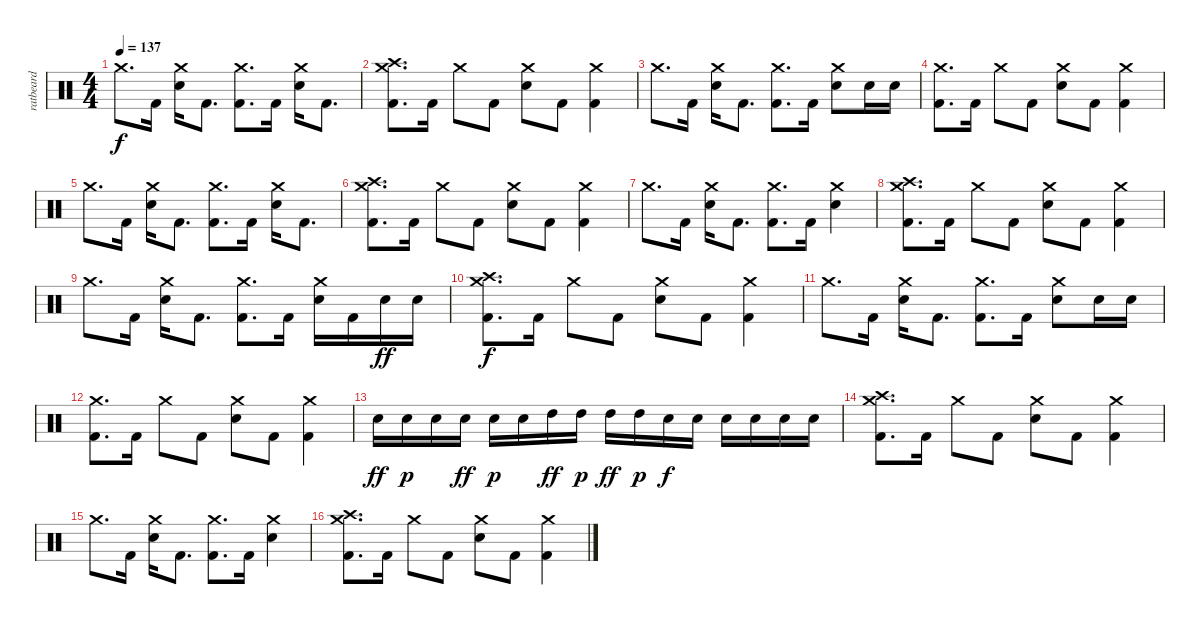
\track ("ratbeard" "ratbeard") {instrument percussion}
\staff {score}
\articulation defaults
\ts (4 4)
\tempo 137
\clef neutral
\ks c "Crash medium (hit)".8{d dy f} "Kick (hit) 2".16
("Crash medium (hit)" "Electric Snare (hit)").16 "Kick (hit) 2".8{d} ("Crash medium (hit)" "Kick (hit) 2").8{d} "Kick (hit) 2".16 ("Crash medium (hit)" "Electric Snare (hit)").16 "Kick (hit) 2".8{d} |
("Crash high (hit)" "Crash medium (hit)" "Kick (hit) 2").8{d} "Kick (hit) 2".16 "Crash medium (hit)".8 "Kick (hit) 2".8 ("Crash medium (hit)" "Electric Snare (hit)").8 "Kick (hit) 2".8 ("Crash medium (hit)" "Kick (hit) 2").4 |
"Crash medium (hit)".8{d} "Kick (hit) 2".16 ("Crash medium (hit)" "Electric Snare (hit)").16 "Kick (hit) 2".8{d} ("Crash medium (hit)" "Kick (hit) 2").8{d} "Kick (hit) 2".16 ("Crash medium (hit)" "Electric Snare (hit)").8 "Electric Snare (hit)".16 "Electric Snare (hit)".16 |
("Crash medium (hit)" "Kick (hit) 2").8{d} "Kick (hit) 2".16 "Crash medium (hit)".8 "Kick (hit) 2".8 ("Crash medium (hit)" "Electric Snare (hit)").8 "Kick (hit) 2".8 ("Crash medium (hit)" "Kick (hit) 2").4 |
"Crash medium (hit)".8{d} "Kick (hit) 2".16 ("Crash medium (hit)" "Electric Snare (hit)").16 "Kick (hit) 2".8{d} ("Crash medium (hit)" "Kick (hit) 2").8{d} "Kick (hit) 2".16 ("Crash medium (hit)" "Electric Snare (hit)").16 "Kick (hit) 2".8{d} |
("Crash high (hit)" "Crash medium (hit)" "Kick (hit) 2").8{d} "Kick (hit) 2".16 "Crash medium (hit)".8 "Kick (hit) 2".8 ("Crash medium (hit)" "Electric Snare (hit)").8 "Kick (hit) 2".8 ("Crash medium (hit)" "Kick (hit) 2").4 |
"Crash medium (hit)".8{d} "Kick (hit) 2".16 ("Crash medium (hit)" "Electric Snare (hit)").16 "Kick (hit) 2".8{d} ("Crash medium (hit)" "Kick (hit) 2").8{d} "Kick (hit) 2".16 ("Crash medium (hit)" "Electric Snare (hit)").4 |
("Crash high (hit)" "Crash medium (hit)" "Kick (hit) 2").8{d} "Kick (hit) 2".16 "Crash medium (hit)".8 "Kick (hit) 2".8 ("Crash medium (hit)" "Electric Snare (hit)").8 "Kick (hit) 2".8 ("Crash medium (hit)" "Kick (hit) 2").4 |
"Crash medium (hit)".8{d} "Kick (hit) 2".16 ("Crash medium (hit)" "Electric Snare (hit)").16 "Kick (hit) 2".8{d} ("Crash medium (hit)" "Kick (hit) 2").8{d} "Kick (hit) 2".16 ("Crash medium (hit)" "Electric Snare (hit)").16 "Kick (hit) 2".16 "Electric Snare (hit)".16{dy ff} "Electric Snare (hit)".16 |
("Crash high (hit)" "Crash medium (hit)" "Kick (hit) 2").8{d dy f} "Kick (hit) 2".16 "Crash medium (hit)".8 "Kick (hit) 2".8 ("Crash medium (hit)" "Electric Snare (hit)").8 "Kick (hit) 2".8 ("Crash medium (hit)" "Kick (hit) 2").4 |
"Crash medium (hit)".8{d} "Kick (hit) 2".16 ("Crash medium (hit)" "Electric Snare (hit)").16 "Kick (hit) 2".8{d} ("Crash medium (hit)" "Kick (hit) 2").8{d} "Kick (hit) 2".16 ("Crash medium (hit)" "Electric Snare (hit)").8 "Electric Snare (hit)".16 "Electric Snare (hit)".16 |
("Crash medium (hit)" "Kick (hit) 2").8{d} "Kick (hit) 2".16 "Crash medium (hit)".8 "Kick (hit) 2".8 ("Crash medium (hit)" "Electric Snare (hit)").8 "Kick (hit) 2".8 ("Crash medium (hit)" "Kick (hit) 2").4 |
"Electric Snare (hit)".16{dy ff} "Electric Snare (hit)".16{dy p} "Electric Snare (hit)".16 "Electric Snare (hit)".16{dy ff} "Electric Snare (hit)".16{dy p} "Electric Snare (hit)".16 "High Tom (hit)".16{dy ff} "High Tom (hit)".16{dy p} "High Tom (hit)".16{dy ff} "High Tom (hit)".16{dy p} "Electric Snare (hit)".16{dy f} "Electric Snare (hit)".16 "Electric Snare (hit)".16 "Electric Snare (hit)".16 "Electric Snare (hit)".16 "Electric Snare (hit)".16 |
("Crash high (hit)" "Crash medium (hit)" "Kick (hit) 2").8{d} "Kick (hit) 2".16 "Crash medium (hit)".8 "Kick (hit) 2".8 ("Crash medium (hit)" "Electric Snare (hit)").8 "Kick (hit) 2".8 ("Crash medium (hit)" "Kick (hit) 2").4 |
"Crash medium (hit)".8{d} "Kick (hit) 2".16 ("Crash medium (hit)" "Electric Snare (hit)").16 "Kick (hit) 2".8{d} ("Crash medium (hit)" "Kick (hit) 2").8{d} "Kick (hit) 2".16 ("Crash medium (hit)" "Electric Snare (hit)").4 |
("Crash high (hit)" "Crash medium (hit)" "Kick (hit) 2").8{d} "Kick (hit) 2".16 "Crash medium (hit)".8 "Kick (hit) 2".8 ("Crash medium (hit)" "Electric Snare (hit)").8 "Kick (hit) 2".8 ("Crash medium (hit)" "Kick (hit) 2").4
